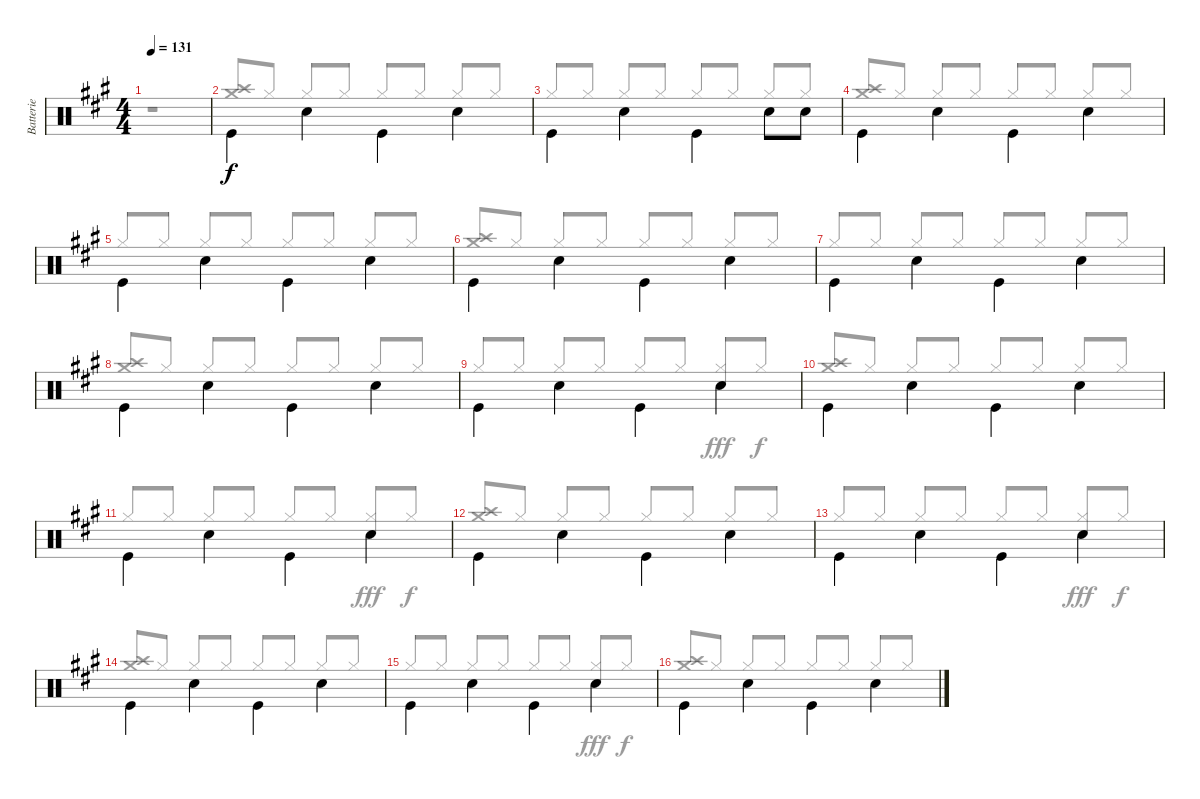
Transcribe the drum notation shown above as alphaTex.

\track ("Batterie" "Batterie") {instrument percussion}
\staff {score}
\articulation defaults
\voice
\ts (4 4)
\tempo 131
\clef neutral
\ks a
|
"Kick (hit)".4{beam Down} "Snare (hit) 2".4{beam Down} "Kick (hit)".4{beam Down} "Snare (hit) 2".4{beam Down} |
"Kick (hit)".4{beam Down} "Snare (hit) 2".4{beam Down} "Kick (hit)".4{beam Down} "Snare (hit) 2".8{beam Down} "Snare (hit) 2".8{beam Down} |
"Kick (hit)".4{beam Down} "Snare (hit) 2".4{beam Down} "Kick (hit)".4{beam Down} "Snare (hit) 2".4{beam Down} |
"Kick (hit)".4{beam Down} "Snare (hit) 2".4{beam Down} "Kick (hit)".4{beam Down} "Snare (hit) 2".4{beam Down} |
"Kick (hit)".4{beam Down} "Snare (hit) 2".4{beam Down} "Kick (hit)".4{beam Down} "Snare (hit) 2".4{beam Down} |
"Kick (hit)".4{beam Down} "Snare (hit) 2".4{beam Down} "Kick (hit)".4{beam Down} "Snare (hit) 2".4{beam Down} |
"Kick (hit)".4{beam Down} "Snare (hit) 2".4{beam Down} "Kick (hit)".4{beam Down} "Snare (hit) 2".4{beam Down} |
"Kick (hit)".4{beam Down} "Snare (hit) 2".4{beam Down} "Kick (hit)".4{beam Down} "Snare (hit) 2".4{beam Down} |
"Kick (hit)".4{beam Down} "Snare (hit) 2".4{beam Down} "Kick (hit)".4{beam Down} "Snare (hit) 2".4{beam Down} |
"Kick (hit)".4{beam Down} "Snare (hit) 2".4{beam Down} "Kick (hit)".4{beam Down} "Snare (hit) 2".4{beam Down} |
"Kick (hit)".4{beam Down} "Snare (hit) 2".4{beam Down} "Kick (hit)".4{beam Down} "Snare (hit) 2".4{beam Down} |
"Kick (hit)".4{beam Down} "Snare (hit) 2".4{beam Down} "Kick (hit)".4{beam Down} "Snare (hit) 2".4{beam Down} |
"Kick (hit)".4{beam Down} "Snare (hit) 2".4{beam Down} "Kick (hit)".4{beam Down} "Snare (hit) 2".4{beam Down} |
"Kick (hit)".4{beam Down} "Snare (hit) 2".4{beam Down} "Kick (hit)".4{beam Down} "Snare (hit) 2".4{beam Down} |
"Kick (hit)".4{beam Down} "Snare (hit) 2".4{beam Down} "Kick (hit)".4{beam Down} "Snare (hit) 2".4{beam Down}
\voice
\clef neutral
\ottava regular
\simile none
\ks a
r.1{dy fff} |
("Crash medium (hit)" "Crash high (hit)").8{dy f beam Up} "Hi-Hat (closed)".8{beam Up} "Hi-Hat (closed)".8{beam Up} "Hi-Hat (closed)".8{beam Up} "Hi-Hat (closed)".8{beam Up} "Hi-Hat (closed)".8{beam Up} "Hi-Hat (closed)".8{beam Up} "Hi-Hat (closed)".8{beam Up} |
"Hi-Hat (closed)".8{beam Up} "Hi-Hat (closed)".8{beam Up} "Hi-Hat (closed)".8{beam Up} "Hi-Hat (closed)".8{beam Up} "Hi-Hat (closed)".8{beam Up} "Hi-Hat (closed)".8{beam Up} "Hi-Hat (closed)".8{beam Up} "Hi-Hat (closed)".8{beam Up} |
("Crash medium (hit)" "Crash high (hit)").8{beam Up} "Hi-Hat (closed)".8{beam Up} "Hi-Hat (closed)".8{beam Up} "Hi-Hat (closed)".8{beam Up} "Hi-Hat (closed)".8{beam Up} "Hi-Hat (closed)".8{beam Up} "Hi-Hat (closed)".8{beam Up} "Hi-Hat (closed)".8{beam Up} |
"Hi-Hat (closed)".8{beam Up} "Hi-Hat (closed)".8{beam Up} "Hi-Hat (closed)".8{beam Up} "Hi-Hat (closed)".8{beam Up} "Hi-Hat (closed)".8{beam Up} "Hi-Hat (closed)".8{beam Up} "Hi-Hat (closed)".8{beam Up} "Hi-Hat (closed)".8{beam Up} |
("Crash medium (hit)" "Crash high (hit)").8{beam Up} "Hi-Hat (closed)".8{beam Up} "Hi-Hat (closed)".8{beam Up} "Hi-Hat (closed)".8{beam Up} "Hi-Hat (closed)".8{beam Up} "Hi-Hat (closed)".8{beam Up} "Hi-Hat (closed)".8{beam Up} "Hi-Hat (closed)".8{beam Up} |
"Hi-Hat (closed)".8{beam Up} "Hi-Hat (closed)".8{beam Up} "Hi-Hat (closed)".8{beam Up} "Hi-Hat (closed)".8{beam Up} "Hi-Hat (closed)".8{beam Up} "Hi-Hat (closed)".8{beam Up} "Hi-Hat (closed)".8{beam Up} "Hi-Hat (closed)".8{beam Up} |
("Crash medium (hit)" "Crash high (hit)").8{beam Up} "Hi-Hat (closed)".8{beam Up} "Hi-Hat (closed)".8{beam Up} "Hi-Hat (closed)".8{beam Up} "Hi-Hat (closed)".8{beam Up} "Hi-Hat (closed)".8{beam Up} "Hi-Hat (closed)".8{beam Up} "Hi-Hat (closed)".8{beam Up} |
"Hi-Hat (closed)".8{beam Up} "Hi-Hat (closed)".8{beam Up} "Hi-Hat (closed)".8{beam Up} "Hi-Hat (closed)".8{beam Up} "Hi-Hat (closed)".8{beam Up} "Hi-Hat (closed)".8{beam Up} ("Electric Snare (hit)" "Hi-Hat (closed)").8{dy fff beam Up} "Hi-Hat (closed)".8{dy f beam Up} |
("Crash medium (hit)" "Crash high (hit)").8{beam Up} "Hi-Hat (closed)".8{beam Up} "Hi-Hat (closed)".8{beam Up} "Hi-Hat (closed)".8{beam Up} "Hi-Hat (closed)".8{beam Up} "Hi-Hat (closed)".8{beam Up} "Hi-Hat (closed)".8{beam Up} "Hi-Hat (closed)".8{beam Up} |
"Hi-Hat (closed)".8{beam Up} "Hi-Hat (closed)".8{beam Up} "Hi-Hat (closed)".8{beam Up} "Hi-Hat (closed)".8{beam Up} "Hi-Hat (closed)".8{beam Up} "Hi-Hat (closed)".8{beam Up} ("Electric Snare (hit)" "Hi-Hat (closed)").8{dy fff beam Up} "Hi-Hat (closed)".8{dy f beam Up} |
("Crash medium (hit)" "Crash high (hit)").8{beam Up} "Hi-Hat (closed)".8{beam Up} "Hi-Hat (closed)".8{beam Up} "Hi-Hat (closed)".8{beam Up} "Hi-Hat (closed)".8{beam Up} "Hi-Hat (closed)".8{beam Up} "Hi-Hat (closed)".8{beam Up} "Hi-Hat (closed)".8{beam Up} |
"Hi-Hat (closed)".8{beam Up} "Hi-Hat (closed)".8{beam Up} "Hi-Hat (closed)".8{beam Up} "Hi-Hat (closed)".8{beam Up} "Hi-Hat (closed)".8{beam Up} "Hi-Hat (closed)".8{beam Up} ("Electric Snare (hit)" "Hi-Hat (closed)").8{dy fff beam Up} "Hi-Hat (closed)".8{dy f beam Up} |
("Crash medium (hit)" "Crash high (hit)").8{beam Up} "Hi-Hat (closed)".8{beam Up} "Hi-Hat (closed)".8{beam Up} "Hi-Hat (closed)".8{beam Up} "Hi-Hat (closed)".8{beam Up} "Hi-Hat (closed)".8{beam Up} "Hi-Hat (closed)".8{beam Up} "Hi-Hat (closed)".8{beam Up} |
"Hi-Hat (closed)".8{beam Up} "Hi-Hat (closed)".8{beam Up} "Hi-Hat (closed)".8{beam Up} "Hi-Hat (closed)".8{beam Up} "Hi-Hat (closed)".8{beam Up} "Hi-Hat (closed)".8{beam Up} ("Electric Snare (hit)" "Hi-Hat (closed)").8{dy fff beam Up} "Hi-Hat (closed)".8{dy f beam Up} |
("Crash medium (hit)" "Crash high (hit)").8{beam Up} "Hi-Hat (closed)".8{beam Up} "Hi-Hat (closed)".8{beam Up} "Hi-Hat (closed)".8{beam Up} "Hi-Hat (closed)".8{beam Up} "Hi-Hat (closed)".8{beam Up} "Hi-Hat (closed)".8{beam Up} "Hi-Hat (closed)".8{beam Up}
